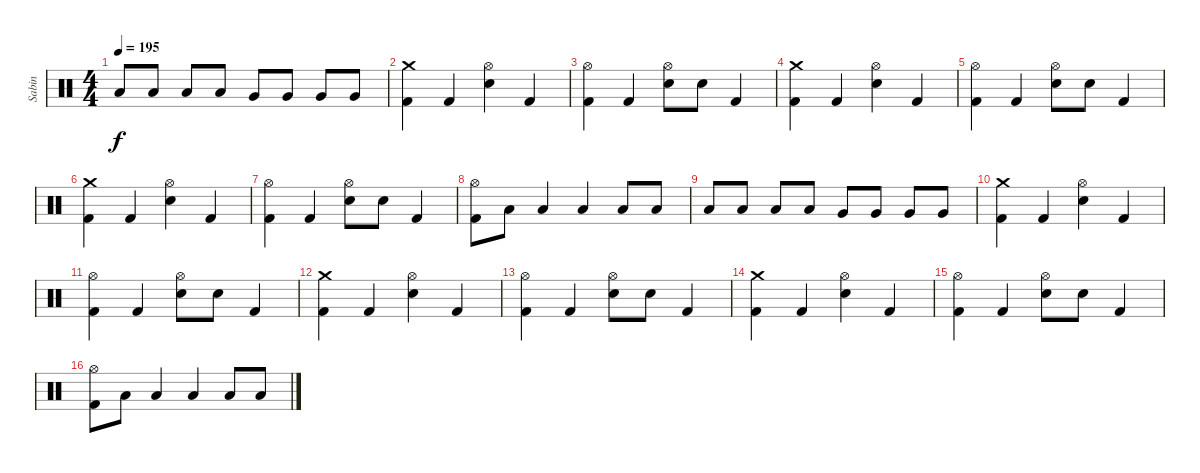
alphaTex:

\track ("Sabin" "Sabin") {instrument percussion}
\staff {score}
\articulation defaults
\ts (4 4)
\tempo 195
\clef neutral
\ks c "Low Tom (hit)".8{dy f} "Low Tom (hit)".8 "Low Tom (hit)".8 "Low Tom (hit)".8 "Very Low Tom (hit)".8 "Very Low Tom (hit)".8 "Very Low Tom (hit)".8 "Very Low Tom (hit)".8
|
("Crash medium (hit)" "Kick (hit) 2").4 "Kick (hit) 2".4 ("Electric Snare (hit)" "Hi-Hat (open)").4 "Kick (hit) 2".4 |
("Hi-Hat (open)" "Kick (hit) 2").4 "Kick (hit) 2".4 ("Electric Snare (hit)" "Hi-Hat (open)").8 "Electric Snare (hit)".8 "Kick (hit) 2".4 |
("Crash medium (hit)" "Kick (hit) 2").4 "Kick (hit) 2".4 ("Electric Snare (hit)" "Hi-Hat (open)").4 "Kick (hit) 2".4 |
("Hi-Hat (open)" "Kick (hit) 2").4 "Kick (hit) 2".4 ("Electric Snare (hit)" "Hi-Hat (open)").8 "Electric Snare (hit)".8 "Kick (hit) 2".4 |
("Crash medium (hit)" "Kick (hit) 2").4 "Kick (hit) 2".4 ("Electric Snare (hit)" "Hi-Hat (open)").4 "Kick (hit) 2".4 |
("Hi-Hat (open)" "Kick (hit) 2").4 "Kick (hit) 2".4 ("Electric Snare (hit)" "Hi-Hat (open)").8 "Electric Snare (hit)".8 "Kick (hit) 2".4 |
("Hi-Hat (open)" "Kick (hit) 2").8 "Low Tom (hit)".8 "Low Tom (hit)".4 "Low Tom (hit)".4 "Low Tom (hit)".8 "Low Tom (hit)".8 |
"Low Tom (hit)".8 "Low Tom (hit)".8 "Low Tom (hit)".8 "Low Tom (hit)".8 "Very Low Tom (hit)".8 "Very Low Tom (hit)".8 "Very Low Tom (hit)".8 "Very Low Tom (hit)".8 |
("Crash medium (hit)" "Kick (hit) 2").4 "Kick (hit) 2".4 ("Electric Snare (hit)" "Hi-Hat (open)").4 "Kick (hit) 2".4 |
("Hi-Hat (open)" "Kick (hit) 2").4 "Kick (hit) 2".4 ("Electric Snare (hit)" "Hi-Hat (open)").8 "Electric Snare (hit)".8 "Kick (hit) 2".4 |
("Crash medium (hit)" "Kick (hit) 2").4 "Kick (hit) 2".4 ("Electric Snare (hit)" "Hi-Hat (open)").4 "Kick (hit) 2".4 |
("Hi-Hat (open)" "Kick (hit) 2").4 "Kick (hit) 2".4 ("Electric Snare (hit)" "Hi-Hat (open)").8 "Electric Snare (hit)".8 "Kick (hit) 2".4 |
("Crash medium (hit)" "Kick (hit) 2").4 "Kick (hit) 2".4 ("Electric Snare (hit)" "Hi-Hat (open)").4 "Kick (hit) 2".4 |
("Hi-Hat (open)" "Kick (hit) 2").4 "Kick (hit) 2".4 ("Electric Snare (hit)" "Hi-Hat (open)").8 "Electric Snare (hit)".8 "Kick (hit) 2".4 |
("Hi-Hat (open)" "Kick (hit) 2").8 "Low Tom (hit)".8 "Low Tom (hit)".4 "Low Tom (hit)".4 "Low Tom (hit)".8 "Low Tom (hit)".8
